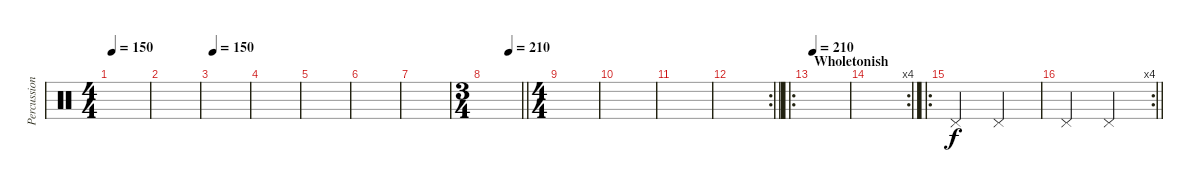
\track ("Percussion" "Percussion") {instrument percussion}
\staff {score}
\articulation defaults
\ts (4 4)
\tempo 150
\clef neutral
\ks c
|
|
\tempo 150
|
|
|
|
|
\ts (3 4)
\tempo (210 0.6666666666666666)
\barLineRight lightlight
|
\ts (4 4)
|
|
|
\rc 2
\barLineRight lightlight
|
\ro
\section ("" "Wholetonish")
\tempo 210
|
\rc 4
|
\ro "Pedal Hi-Hat (hit)".2 "Pedal Hi-Hat (hit)".2
|
\rc 4
\barLineRight lightlight "Pedal Hi-Hat (hit)".2 "Pedal Hi-Hat (hit)".2
